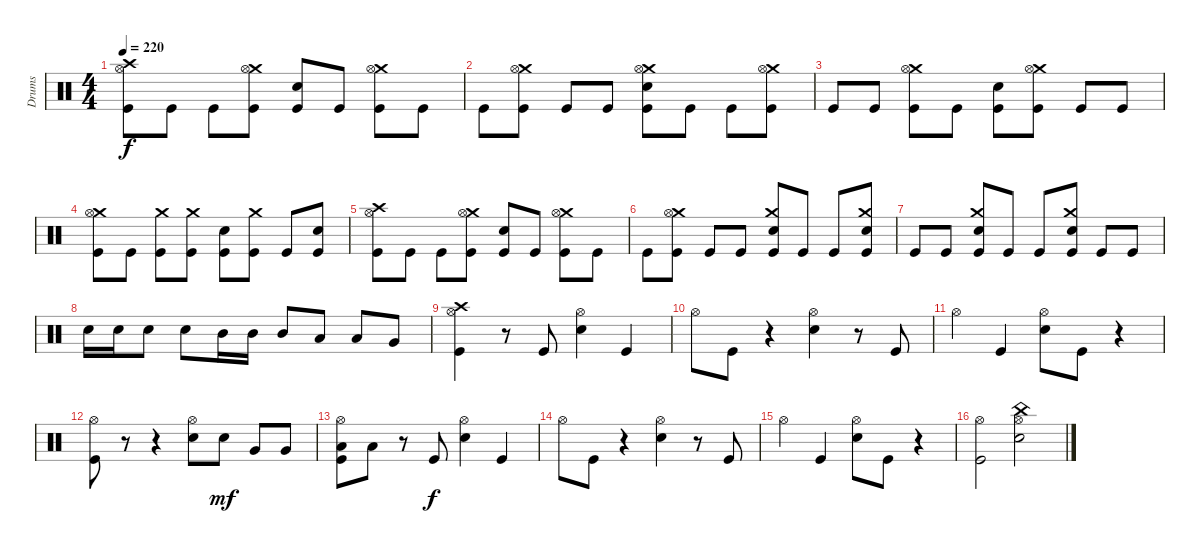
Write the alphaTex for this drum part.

\track ("Drums" "Drums") {instrument percussion}
\staff {score}
\articulation defaults
\ts (4 4)
\tempo 220
\clef neutral
\ks c
("Crash high (hit)" "Hi-Hat (open)" "Kick (hit)").8{dy f} "Kick (hit)".8 "Kick (hit)".8 ("Crash medium (hit)" "Hi-Hat (open)" "Kick (hit)").8 ("Electric Snare (hit)" "Kick (hit)").8 "Kick (hit)".8 ("Crash medium (hit)" "Hi-Hat (open)" "Kick (hit)").8 "Kick (hit)".8 |
"Kick (hit)".8 ("Crash medium (hit)" "Hi-Hat (open)" "Kick (hit)").8 "Kick (hit)".8 "Kick (hit)".8 ("Crash medium (hit)" "Hi-Hat (open)" "Electric Snare (hit)" "Kick (hit)").8 "Kick (hit)".8 "Kick (hit)".8 ("Crash medium (hit)" "Hi-Hat (open)" "Kick (hit)").8 |
"Kick (hit)".8 "Kick (hit)".8 ("Crash medium (hit)" "Hi-Hat (open)" "Kick (hit)").8 "Kick (hit)".8 ("Electric Snare (hit)" "Kick (hit)").8 ("Crash medium (hit)" "Hi-Hat (open)" "Kick (hit)").8 "Kick (hit)".8 "Kick (hit)".8 |
("Crash medium (hit)" "Hi-Hat (open)" "Kick (hit)").8 "Kick (hit)".8 ("Crash medium (hit)" "Kick (hit)").8 ("Crash medium (hit)" "Kick (hit)").8 ("Electric Snare (hit)" "Kick (hit)").8 ("Crash medium (hit)" "Kick (hit)").8 "Kick (hit)".8 ("Electric Snare (hit)" "Kick (hit)").8 |
("Crash high (hit)" "Hi-Hat (open)" "Kick (hit)").8 "Kick (hit)".8 "Kick (hit)".8 ("Crash medium (hit)" "Hi-Hat (open)" "Kick (hit)").8 ("Electric Snare (hit)" "Kick (hit)").8 "Kick (hit)".8 ("Crash medium (hit)" "Hi-Hat (open)" "Kick (hit)").8 "Kick (hit)".8 |
"Kick (hit)".8 ("Crash medium (hit)" "Hi-Hat (open)" "Kick (hit)").8 "Kick (hit)".8 "Kick (hit)".8 ("Crash medium (hit)" "Electric Snare (hit)" "Kick (hit)").8 "Kick (hit)".8 "Kick (hit)".8 ("Crash medium (hit)" "Electric Snare (hit)" "Kick (hit)").8 |
"Kick (hit)".8 "Kick (hit)".8 ("Crash medium (hit)" "Electric Snare (hit)" "Kick (hit)").8 "Kick (hit)".8 "Kick (hit)".8 ("Crash medium (hit)" "Electric Snare (hit)" "Kick (hit)").8 "Kick (hit)".8 "Kick (hit)".8 |
"Electric Snare (hit)".16 "Electric Snare (hit)".16 "Electric Snare (hit)".8 "Electric Snare (hit)".8 "Mid Tom (hit)".16 "Mid Tom (hit)".16 "Mid Tom (hit)".8 "Low Tom (hit)".8 "Low Tom (hit)".8 "Very Low Tom (hit)".8 |
("Crash high (hit)" "Hi-Hat (open)" "Kick (hit)").4 r.8 "Kick (hit)".8 ("Hi-Hat (open)" "Electric Snare (hit)").4 "Kick (hit)".4 |
"Hi-Hat (open)".8 "Kick (hit)".8 r.4 ("Hi-Hat (open)" "Electric Snare (hit)").4 r.8 "Kick (hit)".8 |
"Hi-Hat (open)".4 "Kick (hit)".4 ("Hi-Hat (open)" "Electric Snare (hit)").8 "Kick (hit)".8 r.4 |
("Hi-Hat (open)" "Kick (hit)").8 r.8 r.4 ("Hi-Hat (open)" "Electric Snare (hit)").8 "Electric Snare (hit)".8{dy mf} "Very Low Tom (hit)".8 "Very Low Tom (hit)".8 |
("Hi-Hat (open)" "Low Floor Tom (hit)" "Kick (hit)").8 "Low Floor Tom (hit)".8 r.8 "Kick (hit)".8{dy f} ("Hi-Hat (open)" "Electric Snare (hit)").4 "Kick (hit)".4 |
"Hi-Hat (open)".8 "Kick (hit)".8 r.4 ("Hi-Hat (open)" "Electric Snare (hit)").4 r.8 "Kick (hit)".8 |
"Hi-Hat (open)".4 "Kick (hit)".4 ("Hi-Hat (open)" "Electric Snare (hit)").8 "Kick (hit)".8 r.4 |
("Hi-Hat (open)" "Kick (hit)").2 ("China (hit)" "Hi-Hat (open)" "Electric Snare (hit)").2
